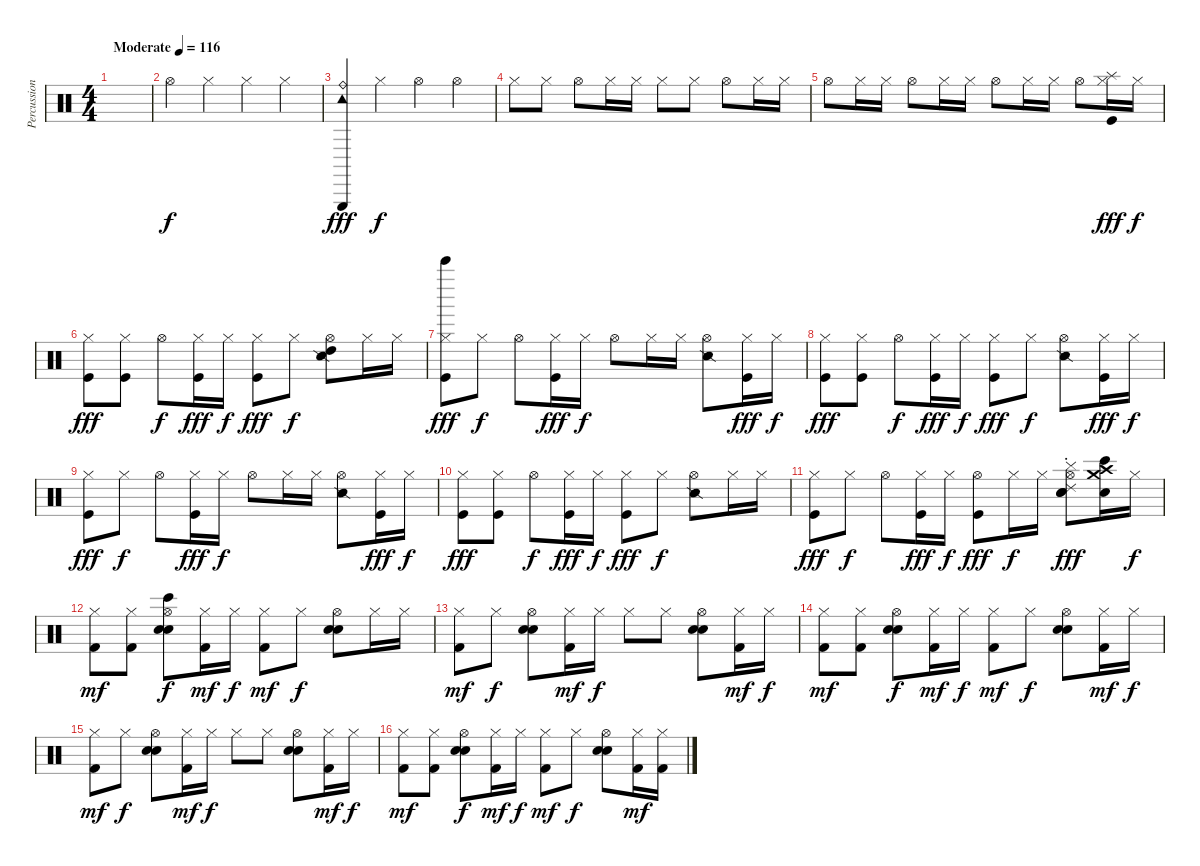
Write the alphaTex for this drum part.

\track ("Percussion" "Percussion") {instrument percussion}
\staff {score}
\articulation defaults
\ts (4 4)
\tempo (116 "Moderate")
\clef neutral
\ks c
|
"Hi-Hat (open)".4 "Hi-Hat (closed)".4 "Hi-Hat (closed)".4 "Hi-Hat (closed)".4 |
("Tambourine (hit)" "Ride (bell)" "Triangle (hit)").4{dy fff} "Hi-Hat (closed)".4{dy f} "Hi-Hat (open)".4 "Hi-Hat (open)".4 |
"Hi-Hat (closed)".8 "Hi-Hat (closed)".8 "Hi-Hat (open)".8 "Hi-Hat (closed)".16 "Hi-Hat (closed)".16 "Hi-Hat (closed)".8 "Hi-Hat (closed)".8 "Hi-Hat (open)".8 "Hi-Hat (closed)".16 "Hi-Hat (closed)".16 |
"Hi-Hat (open)".8 "Hi-Hat (closed)".16 "Hi-Hat (closed)".16 "Hi-Hat (open)".8 "Hi-Hat (closed)".16 "Hi-Hat (closed)".16 "Hi-Hat (open)".8 "Hi-Hat (closed)".16 "Hi-Hat (closed)".16 "Hi-Hat (open)".8 ("Hi-Hat (closed)" "Kick (hit)" "Splash (hit)").16{dy fff} "Hi-Hat (closed)".16{dy f} |
("Hi-Hat (closed)" "Kick (hit)").8{dy fff} ("Hi-Hat (closed)" "Kick (hit)").8 "Hi-Hat (open)".8{dy f} ("Hi-Hat (closed)" "Kick (hit)").16{dy fff} "Hi-Hat (closed)".16{dy f} ("Hi-Hat (closed)" "Kick (hit)").8{dy fff} "Hi-Hat (closed)".8{dy f} ("Hi-Hat (open)" "Snare (side stick) 2" "High Tom (hit)").8 "Hi-Hat (closed)".16 "Hi-Hat (closed)".16 |
("Hi-Hat (closed)" "Kick (hit)" "Bell Tree (hit)").8{dy fff} "Hi-Hat (closed)".8{dy f} "Hi-Hat (open)".8 ("Hi-Hat (closed)" "Kick (hit)").16{dy fff} "Hi-Hat (closed)".16{dy f} "Hi-Hat (open)".8 "Hi-Hat (closed)".16 "Hi-Hat (closed)".16 ("Hi-Hat (open)" "Snare (side stick) 2").8 ("Hi-Hat (closed)" "Kick (hit)").16{dy fff} "Hi-Hat (closed)".16{dy f} |
("Hi-Hat (closed)" "Kick (hit)").8{dy fff} ("Hi-Hat (closed)" "Kick (hit)").8 "Hi-Hat (open)".8{dy f} ("Hi-Hat (closed)" "Kick (hit)").16{dy fff} "Hi-Hat (closed)".16{dy f} ("Hi-Hat (closed)" "Kick (hit)").8{dy fff} "Hi-Hat (closed)".8{dy f} ("Hi-Hat (open)" "Snare (side stick) 2").8 ("Hi-Hat (closed)" "Kick (hit)").16{dy fff} "Hi-Hat (closed)".16{dy f} |
("Hi-Hat (closed)" "Kick (hit)").8{dy fff} "Hi-Hat (closed)".8{dy f} "Hi-Hat (open)".8 ("Hi-Hat (closed)" "Kick (hit)").16{dy fff} "Hi-Hat (closed)".16{dy f} "Hi-Hat (open)".8 "Hi-Hat (closed)".16 "Hi-Hat (closed)".16 ("Hi-Hat (open)" "Snare (side stick) 2").8 ("Hi-Hat (closed)" "Kick (hit)").16{dy fff} "Hi-Hat (closed)".16{dy f} |
("Hi-Hat (closed)" "Kick (hit)").8{dy fff} ("Hi-Hat (closed)" "Kick (hit)").8 "Hi-Hat (open)".8{dy f} ("Hi-Hat (closed)" "Kick (hit)").16{dy fff} "Hi-Hat (closed)".16{dy f} ("Hi-Hat (closed)" "Kick (hit)").8{dy fff} "Hi-Hat (closed)".8{dy f} ("Hi-Hat (open)" "Snare (side stick) 2").8 "Hi-Hat (closed)".16 "Hi-Hat (closed)".16 |
("Hi-Hat (closed)" "Kick (hit)").8{dy fff} "Hi-Hat (closed)".8{dy f} "Hi-Hat (open)".8 ("Hi-Hat (closed)" "Kick (hit)").16{dy fff} "Hi-Hat (closed)".16{dy f} ("Hi-Hat (open)" "Kick (hit)").8{dy fff} "Hi-Hat (closed)".16{dy f} "Hi-Hat (closed)".16 ("Hi-Hat (open)" "Electric Snare (hit)" "Hand Clap (hit)" "Cymbal (hit)" "Ride (choke) 2").8{dy fff} ("Bongo High (hit)" "Hand Clap (hit)" "Crash medium (hit)" "Crash high (hit)").16 "Hi-Hat (closed)".16{dy f} |
("Hi-Hat (closed)" "Kick (hit) 2").8{dy mf} ("Hi-Hat (closed)" "Kick (hit) 2").8 ("Hi-Hat (open)" "Electric Snare (hit)" "Hand Clap (hit)" "Bongo High (hit)").8{dy f} ("Hi-Hat (closed)" "Kick (hit) 2").16{dy mf} "Hi-Hat (closed)".16{dy f} ("Hi-Hat (closed)" "Kick (hit) 2").8{dy mf} "Hi-Hat (closed)".8{dy f} ("Hi-Hat (open)" "Electric Snare (hit)" "Hand Clap (hit)").8 "Hi-Hat (closed)".16 "Hi-Hat (closed)".16 |
("Hi-Hat (closed)" "Kick (hit) 2").8{dy mf} "Hi-Hat (closed)".8{dy f} ("Hi-Hat (open)" "Electric Snare (hit)" "Hand Clap (hit)").8 ("Hi-Hat (closed)" "Kick (hit) 2").16{dy mf} "Hi-Hat (closed)".16{dy f} "Hi-Hat (closed)".8 "Hi-Hat (closed)".8 ("Hi-Hat (open)" "Electric Snare (hit)" "Hand Clap (hit)").8 ("Hi-Hat (closed)" "Kick (hit) 2").16{dy mf} "Hi-Hat (closed)".16{dy f} |
("Hi-Hat (closed)" "Kick (hit) 2").8{dy mf} ("Hi-Hat (closed)" "Kick (hit) 2").8 ("Hi-Hat (open)" "Electric Snare (hit)" "Hand Clap (hit)").8{dy f} ("Hi-Hat (closed)" "Kick (hit) 2").16{dy mf} "Hi-Hat (closed)".16{dy f} ("Hi-Hat (closed)" "Kick (hit) 2").8{dy mf} "Hi-Hat (closed)".8{dy f} ("Hi-Hat (open)" "Electric Snare (hit)" "Hand Clap (hit)").8 ("Hi-Hat (closed)" "Kick (hit) 2").16{dy mf} "Hi-Hat (closed)".16{dy f} |
("Hi-Hat (closed)" "Kick (hit) 2").8{dy mf} "Hi-Hat (closed)".8{dy f} ("Hi-Hat (open)" "Electric Snare (hit)" "Hand Clap (hit)").8 ("Hi-Hat (closed)" "Kick (hit) 2").16{dy mf} "Hi-Hat (closed)".16{dy f} "Hi-Hat (closed)".8 "Hi-Hat (closed)".8 ("Hi-Hat (open)" "Electric Snare (hit)" "Hand Clap (hit)").8 ("Hi-Hat (closed)" "Kick (hit) 2").16{dy mf} "Hi-Hat (closed)".16{dy f} |
("Hi-Hat (closed)" "Kick (hit) 2").8{dy mf} ("Hi-Hat (closed)" "Kick (hit) 2").8 ("Hi-Hat (open)" "Electric Snare (hit)" "Hand Clap (hit)").8{dy f} ("Hi-Hat (closed)" "Kick (hit) 2").16{dy mf} "Hi-Hat (closed)".16{dy f} ("Hi-Hat (closed)" "Kick (hit) 2").8{dy mf} "Hi-Hat (closed)".8{dy f} ("Hi-Hat (open)" "Electric Snare (hit)" "Hand Clap (hit)").8 ("Hi-Hat (closed)" "Kick (hit) 2").16{dy mf} ("Hi-Hat (closed)" "Kick (hit) 2").16
